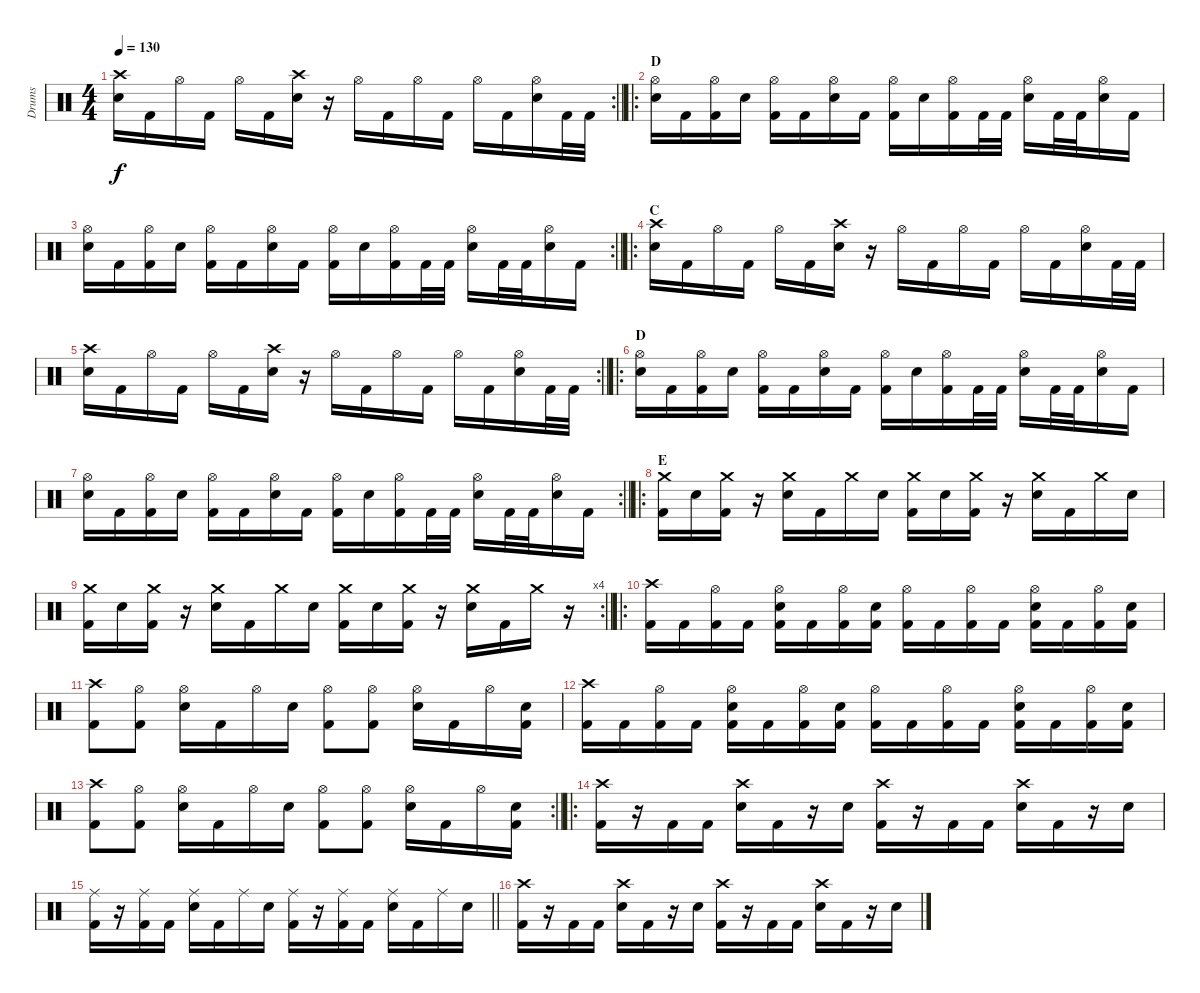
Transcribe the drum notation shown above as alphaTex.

\track ("Drums" "Drums") {instrument percussion}
\staff {score}
\articulation defaults
\rc 2
\ts (4 4)
\tempo 130
\clef neutral
\barLineRight lightlight
\ks c
("Crash high (hit)" "Electric Snare (hit)").16{dy f} "Kick (hit) 2".16 "Hi-Hat (open)".16 "Kick (hit) 2".16 "Hi-Hat (open)".16 "Kick (hit) 2".16 ("Crash high (hit)" "Electric Snare (hit)").16 r.16 "Hi-Hat (open)".16 "Kick (hit) 2".16 "Hi-Hat (open)".16 "Kick (hit) 2".16 "Hi-Hat (open)".16 "Kick (hit) 2".16 ("Hi-Hat (open)" "Electric Snare (hit)").16 "Kick (hit) 2".32 "Kick (hit) 2".32 |
\ro
\section ("" "D")
("Hi-Hat (open)" "Electric Snare (hit)").16 "Kick (hit) 2".16 ("Hi-Hat (open)" "Kick (hit) 2").16 "Electric Snare (hit)".16 ("Hi-Hat (open)" "Kick (hit) 2").16 "Kick (hit) 2".16 ("Hi-Hat (open)" "Electric Snare (hit)").16 "Kick (hit) 2".16 ("Hi-Hat (open)" "Kick (hit) 2").16 "Electric Snare (hit)".16 ("Hi-Hat (open)" "Kick (hit) 2").16 "Kick (hit) 2".32 "Kick (hit) 2".32 ("Hi-Hat (open)" "Electric Snare (hit)").16 "Kick (hit) 2".32 "Kick (hit) 2".32 ("Hi-Hat (open)" "Electric Snare (hit)").16 "Kick (hit) 2".16 |
\rc 2
\barLineRight lightlight
("Hi-Hat (open)" "Electric Snare (hit)").16 "Kick (hit) 2".16 ("Hi-Hat (open)" "Kick (hit) 2").16 "Electric Snare (hit)".16 ("Hi-Hat (open)" "Kick (hit) 2").16 "Kick (hit) 2".16 ("Hi-Hat (open)" "Electric Snare (hit)").16 "Kick (hit) 2".16 ("Hi-Hat (open)" "Kick (hit) 2").16 "Electric Snare (hit)".16 ("Hi-Hat (open)" "Kick (hit) 2").16 "Kick (hit) 2".32 "Kick (hit) 2".32 ("Hi-Hat (open)" "Electric Snare (hit)").16 "Kick (hit) 2".32 "Kick (hit) 2".32 ("Hi-Hat (open)" "Electric Snare (hit)").16 "Kick (hit) 2".16 |
\ro
\section ("" "C")
("Crash high (hit)" "Electric Snare (hit)").16 "Kick (hit) 2".16 "Hi-Hat (open)".16 "Kick (hit) 2".16 "Hi-Hat (open)".16 "Kick (hit) 2".16 ("Crash high (hit)" "Electric Snare (hit)").16 r.16 "Hi-Hat (open)".16 "Kick (hit) 2".16 "Hi-Hat (open)".16 "Kick (hit) 2".16 "Hi-Hat (open)".16 "Kick (hit) 2".16 ("Hi-Hat (open)" "Electric Snare (hit)").16 "Kick (hit) 2".32 "Kick (hit) 2".32 |
\rc 2
\barLineRight lightlight
("Crash high (hit)" "Electric Snare (hit)").16 "Kick (hit) 2".16 "Hi-Hat (open)".16 "Kick (hit) 2".16 "Hi-Hat (open)".16 "Kick (hit) 2".16 ("Crash high (hit)" "Electric Snare (hit)").16 r.16 "Hi-Hat (open)".16 "Kick (hit) 2".16 "Hi-Hat (open)".16 "Kick (hit) 2".16 "Hi-Hat (open)".16 "Kick (hit) 2".16 ("Hi-Hat (open)" "Electric Snare (hit)").16 "Kick (hit) 2".32 "Kick (hit) 2".32 |
\ro
\section ("" "D")
("Hi-Hat (open)" "Electric Snare (hit)").16 "Kick (hit) 2".16 ("Hi-Hat (open)" "Kick (hit) 2").16 "Electric Snare (hit)".16 ("Hi-Hat (open)" "Kick (hit) 2").16 "Kick (hit) 2".16 ("Hi-Hat (open)" "Electric Snare (hit)").16 "Kick (hit) 2".16 ("Hi-Hat (open)" "Kick (hit) 2").16 "Electric Snare (hit)".16 ("Hi-Hat (open)" "Kick (hit) 2").16 "Kick (hit) 2".32 "Kick (hit) 2".32 ("Hi-Hat (open)" "Electric Snare (hit)").16 "Kick (hit) 2".32 "Kick (hit) 2".32 ("Hi-Hat (open)" "Electric Snare (hit)").16 "Kick (hit) 2".16 |
\rc 2
\barLineRight lightlight
("Hi-Hat (open)" "Electric Snare (hit)").16 "Kick (hit) 2".16 ("Hi-Hat (open)" "Kick (hit) 2").16 "Electric Snare (hit)".16 ("Hi-Hat (open)" "Kick (hit) 2").16 "Kick (hit) 2".16 ("Hi-Hat (open)" "Electric Snare (hit)").16 "Kick (hit) 2".16 ("Hi-Hat (open)" "Kick (hit) 2").16 "Electric Snare (hit)".16 ("Hi-Hat (open)" "Kick (hit) 2").16 "Kick (hit) 2".32 "Kick (hit) 2".32 ("Hi-Hat (open)" "Electric Snare (hit)").16 "Kick (hit) 2".32 "Kick (hit) 2".32 ("Hi-Hat (open)" "Electric Snare (hit)").16 "Kick (hit) 2".16 |
\ro
\section ("" "E")
("Crash medium (hit)" "Kick (hit) 2").16 "Electric Snare (hit)".16 ("Crash medium (hit)" "Kick (hit) 2").16 r.16 ("Crash medium (hit)" "Electric Snare (hit)").16 "Kick (hit) 2".16 "Crash medium (hit)".16 "Electric Snare (hit)".16 ("Crash medium (hit)" "Kick (hit) 2").16 "Electric Snare (hit)".16 ("Crash medium (hit)" "Kick (hit) 2").16 r.16 ("Crash medium (hit)" "Electric Snare (hit)").16 "Kick (hit) 2".16 "Crash medium (hit)".16 "Electric Snare (hit)".16 |
\rc 4
\barLineRight lightlight
("Crash medium (hit)" "Kick (hit) 2").16 "Electric Snare (hit)".16 ("Crash medium (hit)" "Kick (hit) 2").16 r.16 ("Crash medium (hit)" "Electric Snare (hit)").16 "Kick (hit) 2".16 "Crash medium (hit)".16 "Electric Snare (hit)".16 ("Crash medium (hit)" "Kick (hit) 2").16 "Electric Snare (hit)".16 ("Crash medium (hit)" "Kick (hit) 2").16 r.16 ("Crash medium (hit)" "Electric Snare (hit)").16 "Kick (hit) 2".16 "Crash medium (hit)".16 r.16 |
\ro
("Crash high (hit)" "Kick (hit) 2").16 "Kick (hit) 2".16 ("Hi-Hat (open)" "Kick (hit) 2").16 "Kick (hit) 2".16 ("Hi-Hat (open)" "Electric Snare (hit)" "Kick (hit) 2").16 "Kick (hit) 2".16 ("Hi-Hat (open)" "Kick (hit) 2").16 ("Electric Snare (hit)" "Kick (hit) 2").16 ("Hi-Hat (open)" "Kick (hit) 2").16 "Kick (hit) 2".16 ("Hi-Hat (open)" "Kick (hit) 2").16 "Kick (hit) 2".16 ("Hi-Hat (open)" "Electric Snare (hit)" "Kick (hit) 2").16 "Kick (hit) 2".16 ("Hi-Hat (open)" "Kick (hit) 2").16 ("Electric Snare (hit)" "Kick (hit) 2").16 |
("Crash high (hit)" "Kick (hit) 2").8 ("Hi-Hat (open)" "Kick (hit) 2").8 ("Hi-Hat (open)" "Electric Snare (hit)").16 "Kick (hit) 2".16 "Hi-Hat (open)".16 "Electric Snare (hit)".16 ("Hi-Hat (open)" "Kick (hit) 2").8 ("Hi-Hat (open)" "Kick (hit) 2").8 ("Hi-Hat (open)" "Electric Snare (hit)").16 "Kick (hit) 2".16 "Hi-Hat (open)".16 ("Electric Snare (hit)" "Kick (hit) 2").16 |
("Crash high (hit)" "Kick (hit) 2").16 "Kick (hit) 2".16 ("Hi-Hat (open)" "Kick (hit) 2").16 "Kick (hit) 2".16 ("Hi-Hat (open)" "Electric Snare (hit)" "Kick (hit) 2").16 "Kick (hit) 2".16 ("Hi-Hat (open)" "Kick (hit) 2").16 ("Electric Snare (hit)" "Kick (hit) 2").16 ("Hi-Hat (open)" "Kick (hit) 2").16 "Kick (hit) 2".16 ("Hi-Hat (open)" "Kick (hit) 2").16 "Kick (hit) 2".16 ("Hi-Hat (open)" "Electric Snare (hit)" "Kick (hit) 2").16 "Kick (hit) 2".16 ("Hi-Hat (open)" "Kick (hit) 2").16 ("Electric Snare (hit)" "Kick (hit) 2").16 |
\rc 2
\barLineRight lightlight
("Crash high (hit)" "Kick (hit) 2").8 ("Hi-Hat (open)" "Kick (hit) 2").8 ("Hi-Hat (open)" "Electric Snare (hit)").16 "Kick (hit) 2".16 "Hi-Hat (open)".16 "Electric Snare (hit)".16 ("Hi-Hat (open)" "Kick (hit) 2").8 ("Hi-Hat (open)" "Kick (hit) 2").8 ("Hi-Hat (open)" "Electric Snare (hit)").16 "Kick (hit) 2".16 "Hi-Hat (open)".16 ("Electric Snare (hit)" "Kick (hit) 2").16 |
\ro
("Crash high (hit)" "Kick (hit) 2").16 r.16 "Kick (hit) 2".16 "Kick (hit) 2".16 ("Crash high (hit)" "Electric Snare (hit)").16 "Kick (hit) 2".16 r.16 "Electric Snare (hit)".16 ("Crash high (hit)" "Kick (hit) 2").16 r.16 "Kick (hit) 2".16 "Kick (hit) 2".16 ("Crash high (hit)" "Electric Snare (hit)").16 "Kick (hit) 2".16 r.16 "Electric Snare (hit)".16 |
\barLineRight lightlight
("Ride (middle)" "Kick (hit) 2").16 r.16 ("Ride (middle)" "Kick (hit) 2").16 "Kick (hit) 2".16 ("Ride (middle)" "Electric Snare (hit)").16 "Kick (hit) 2".16 "Ride (middle)".16 "Electric Snare (hit)".16 ("Ride (middle)" "Kick (hit) 2").16 r.16 ("Ride (middle)" "Kick (hit) 2").16 "Kick (hit) 2".16 ("Ride (middle)" "Electric Snare (hit)").16 "Kick (hit) 2".16 "Ride (middle)".16 "Electric Snare (hit)".16 |
("Crash high (hit)" "Kick (hit) 2").16 r.16 "Kick (hit) 2".16 "Kick (hit) 2".16 ("Crash high (hit)" "Electric Snare (hit)").16 "Kick (hit) 2".16 r.16 "Electric Snare (hit)".16 ("Crash high (hit)" "Kick (hit) 2").16 r.16 "Kick (hit) 2".16 "Kick (hit) 2".16 ("Crash high (hit)" "Electric Snare (hit)").16 "Kick (hit) 2".16 r.16 "Electric Snare (hit)".16
